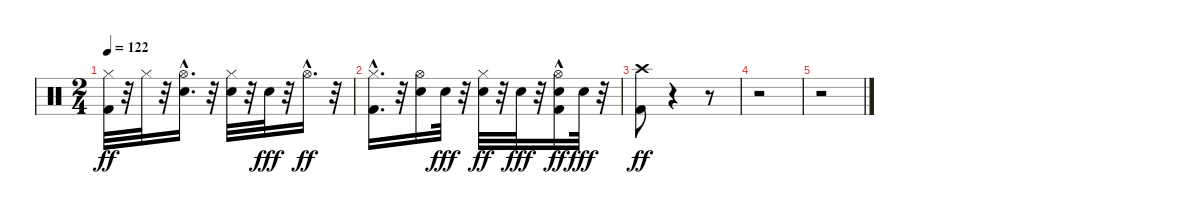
\track "" {instrument percussion}
\staff {score}
\articulation defaults
\ts (2 4)
\tempo 122
\clef neutral
\ks c
("Kick (hit) 2" "Hi-Hat (closed)").32{dy ff} r.32 "Hi-Hat (closed)".32 r.32 ("Snare (hit) 2" "Hi-Hat (open)"{hac}).16{d} r.32 ("Snare (hit) 2" "Hi-Hat (closed)").32 r.32 "Snare (hit) 2".32{dy fff} r.32 "Hi-Hat (open)"{hac}.16{d dy ff} r.32 |
("Kick (hit) 2"{hac} "Hi-Hat (closed)").16{d} r.32 ("Snare (hit) 2" "Hi-Hat (open)").16 "Snare (hit) 2".32{dy fff} r.32 ("Snare (hit) 2" "Hi-Hat (closed)").32{dy ff} r.32 "Snare (hit) 2".32{dy fff} r.32 ("Hand Clap (hit)" "Kick (hit) 2" "Hi-Hat (open)"{hac}).16{dy ff} "Hand Clap (hit)".32{dy fff} r.32 |
("Kick (hit) 2" "Crash high (hit)").8{dy ff} r.4 r.8 |
r.2 |
r.2
